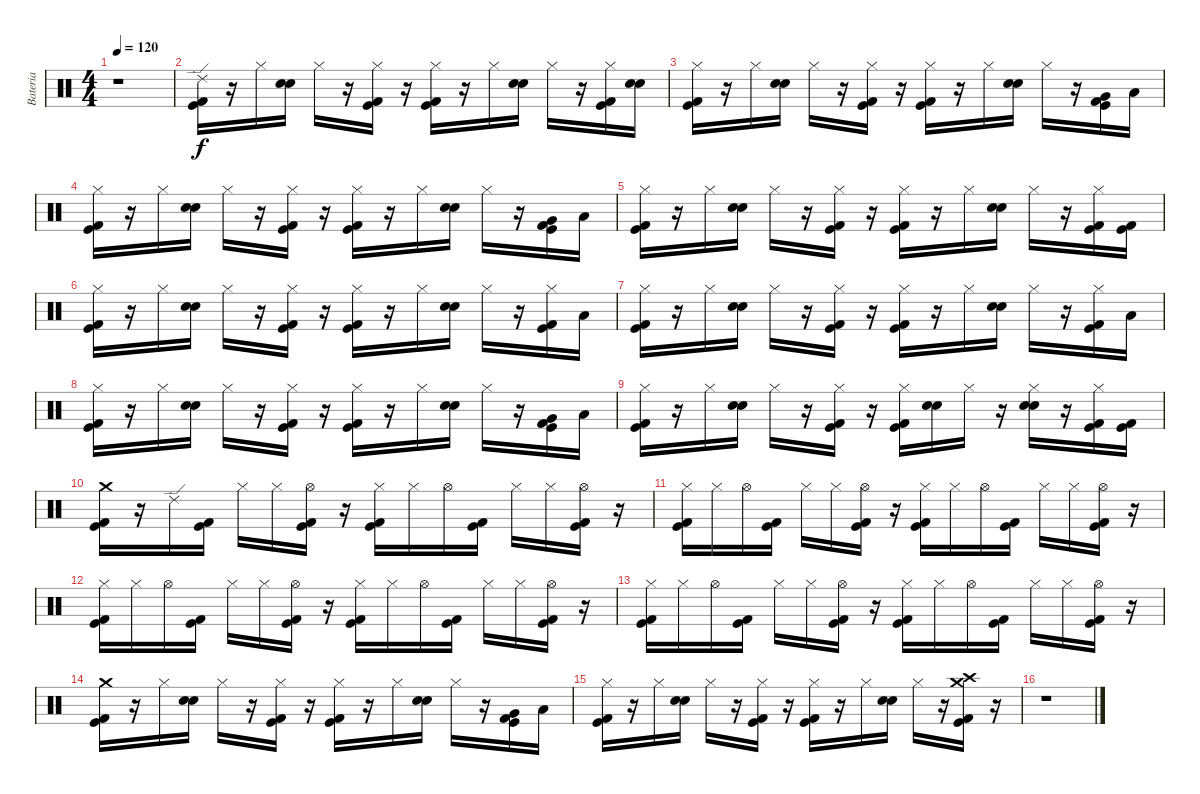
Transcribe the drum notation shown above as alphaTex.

\track ("Bateria" "Bateria") {instrument percussion}
\staff {score}
\articulation defaults
\ts (4 4)
\tempo 120
\clef neutral
\ks c
r.1{dy f} |
("Ride (edge) 2" "Kick (hit) 2" "Kick (hit)").16 r.16 "Hi-Hat (closed)".16 ("Electric Snare (hit)" "Snare (hit) 2").16 "Hi-Hat (closed)".16 r.16 ("Hi-Hat (closed)" "Kick (hit) 2" "Kick (hit)").16 r.16 ("Kick (hit) 2" "Kick (hit)" "Hi-Hat (closed)").16 r.16 "Hi-Hat (closed)".16 ("Electric Snare (hit)" "Snare (hit) 2").16 "Hi-Hat (closed)".16 r.16 ("Kick (hit)" "Kick (hit) 2" "Hi-Hat (closed)").16 ("Electric Snare (hit)" "Snare (hit) 2").16 |
("Hi-Hat (closed)" "Kick (hit) 2" "Kick (hit)").16 r.16 "Hi-Hat (closed)".16 ("Electric Snare (hit)" "Snare (hit) 2").16 "Hi-Hat (closed)".16 r.16 ("Hi-Hat (closed)" "Kick (hit) 2" "Kick (hit)").16 r.16 ("Kick (hit) 2" "Kick (hit)" "Hi-Hat (closed)").16 r.16 "Hi-Hat (closed)".16 ("Electric Snare (hit)" "Snare (hit) 2").16 "Hi-Hat (closed)".16 r.16 ("Very Low Tom (hit)" "Kick (hit)" "Kick (hit) 2").16 "Low Floor Tom (hit)".16 |
("Hi-Hat (closed)" "Kick (hit) 2" "Kick (hit)").16 r.16 "Hi-Hat (closed)".16 ("Electric Snare (hit)" "Snare (hit) 2").16 "Hi-Hat (closed)".16 r.16 ("Hi-Hat (closed)" "Kick (hit) 2" "Kick (hit)").16 r.16 ("Kick (hit) 2" "Kick (hit)" "Hi-Hat (closed)").16 r.16 "Hi-Hat (closed)".16 ("Electric Snare (hit)" "Snare (hit) 2").16 "Hi-Hat (closed)".16 r.16 ("Very Low Tom (hit)" "Kick (hit)" "Kick (hit) 2").16 "Low Floor Tom (hit)".16 |
("Hi-Hat (closed)" "Kick (hit) 2" "Kick (hit)").16 r.16 "Hi-Hat (closed)".16 ("Electric Snare (hit)" "Snare (hit) 2").16 "Hi-Hat (closed)".16 r.16 ("Hi-Hat (closed)" "Kick (hit) 2" "Kick (hit)").16 r.16 ("Kick (hit) 2" "Kick (hit)" "Hi-Hat (closed)").16 r.16 "Hi-Hat (closed)".16 ("Electric Snare (hit)" "Snare (hit) 2").16 "Hi-Hat (closed)".16 r.16 ("Kick (hit)" "Kick (hit) 2" "Hi-Hat (closed)").16 ("Kick (hit) 2" "Kick (hit)").16 |
("Hi-Hat (closed)" "Kick (hit) 2" "Kick (hit)").16 r.16 "Hi-Hat (closed)".16 ("Electric Snare (hit)" "Snare (hit) 2").16 "Hi-Hat (closed)".16 r.16 ("Hi-Hat (closed)" "Kick (hit) 2" "Kick (hit)").16 r.16 ("Kick (hit) 2" "Kick (hit)" "Hi-Hat (closed)").16 r.16 "Hi-Hat (closed)".16 ("Electric Snare (hit)" "Snare (hit) 2").16 "Hi-Hat (closed)".16 r.16 ("Kick (hit)" "Kick (hit) 2" "Hi-Hat (closed)").16 "Low Floor Tom (hit)".16 |
("Hi-Hat (closed)" "Kick (hit) 2" "Kick (hit)").16 r.16 "Hi-Hat (closed)".16 ("Electric Snare (hit)" "Snare (hit) 2").16 "Hi-Hat (closed)".16 r.16 ("Hi-Hat (closed)" "Kick (hit) 2" "Kick (hit)").16 r.16 ("Kick (hit) 2" "Kick (hit)" "Hi-Hat (closed)").16 r.16 "Hi-Hat (closed)".16 ("Electric Snare (hit)" "Snare (hit) 2").16 "Hi-Hat (closed)".16 r.16 ("Kick (hit)" "Kick (hit) 2" "Hi-Hat (closed)").16 "Low Floor Tom (hit)".16 |
("Hi-Hat (closed)" "Kick (hit) 2" "Kick (hit)").16 r.16 "Hi-Hat (closed)".16 ("Electric Snare (hit)" "Snare (hit) 2").16 "Hi-Hat (closed)".16 r.16 ("Hi-Hat (closed)" "Kick (hit) 2" "Kick (hit)").16 r.16 ("Kick (hit) 2" "Kick (hit)" "Hi-Hat (closed)").16 r.16 "Hi-Hat (closed)".16 ("Electric Snare (hit)" "Snare (hit) 2").16 "Hi-Hat (closed)".16 r.16 ("Very Low Tom (hit)" "Kick (hit)" "Kick (hit) 2").16 "Low Floor Tom (hit)".16 |
("Hi-Hat (closed)" "Kick (hit) 2" "Kick (hit)").16 r.16 "Hi-Hat (closed)".16 ("Electric Snare (hit)" "Snare (hit) 2").16 "Hi-Hat (closed)".16 r.16 ("Hi-Hat (closed)" "Kick (hit) 2" "Kick (hit)").16 r.16 ("Kick (hit) 2" "Kick (hit)" "Hi-Hat (closed)").16 ("Electric Snare (hit)" "Snare (hit) 2").16 "Hi-Hat (closed)".16 r.16 ("Electric Snare (hit)" "Snare (hit) 2" "Hi-Hat (closed)").16 r.16 ("Kick (hit)" "Kick (hit) 2" "Hi-Hat (closed)").16 ("Kick (hit) 2" "Kick (hit)").16 |
("Crash medium (hit)" "Kick (hit) 2" "Kick (hit)").16 r.16 "Ride (edge) 2".16 ("Kick (hit) 2" "Kick (hit)").16 "Hi-Hat (closed)".16 "Hi-Hat (closed)".16 ("Kick (hit) 2" "Kick (hit)" "Hi-Hat (open)").16 r.16 ("Kick (hit) 2" "Kick (hit)" "Hi-Hat (closed)").16 "Hi-Hat (closed)".16 "Hi-Hat (open)".16 ("Kick (hit) 2" "Kick (hit)").16 "Hi-Hat (closed)".16 "Hi-Hat (closed)".16 ("Kick (hit) 2" "Kick (hit)" "Hi-Hat (open)").16 r.16 |
("Kick (hit) 2" "Kick (hit)" "Hi-Hat (closed)").16 "Hi-Hat (closed)".16 "Hi-Hat (open)".16 ("Kick (hit) 2" "Kick (hit)").16 "Hi-Hat (closed)".16 "Hi-Hat (closed)".16 ("Kick (hit) 2" "Kick (hit)" "Hi-Hat (open)").16 r.16 ("Kick (hit) 2" "Kick (hit)" "Hi-Hat (closed)").16 "Hi-Hat (closed)".16 "Hi-Hat (open)".16 ("Kick (hit) 2" "Kick (hit)").16 "Hi-Hat (closed)".16 "Hi-Hat (closed)".16 ("Kick (hit) 2" "Kick (hit)" "Hi-Hat (open)").16 r.16 |
("Kick (hit) 2" "Kick (hit)" "Hi-Hat (closed)").16 "Hi-Hat (closed)".16 "Hi-Hat (open)".16 ("Kick (hit) 2" "Kick (hit)").16 "Hi-Hat (closed)".16 "Hi-Hat (closed)".16 ("Kick (hit) 2" "Kick (hit)" "Hi-Hat (open)").16 r.16 ("Kick (hit) 2" "Kick (hit)" "Hi-Hat (closed)").16 "Hi-Hat (closed)".16 "Hi-Hat (open)".16 ("Kick (hit) 2" "Kick (hit)").16 "Hi-Hat (closed)".16 "Hi-Hat (closed)".16 ("Kick (hit) 2" "Kick (hit)" "Hi-Hat (open)").16 r.16 |
("Kick (hit) 2" "Kick (hit)" "Hi-Hat (closed)").16 "Hi-Hat (closed)".16 "Hi-Hat (open)".16 ("Kick (hit) 2" "Kick (hit)").16 "Hi-Hat (closed)".16 "Hi-Hat (closed)".16 ("Kick (hit) 2" "Kick (hit)" "Hi-Hat (open)").16 r.16 ("Kick (hit) 2" "Kick (hit)" "Hi-Hat (closed)").16 "Hi-Hat (closed)".16 "Hi-Hat (open)".16 ("Kick (hit) 2" "Kick (hit)").16 "Hi-Hat (closed)".16 "Hi-Hat (closed)".16 ("Kick (hit) 2" "Kick (hit)" "Hi-Hat (open)").16 r.16 |
("Crash medium (hit)" "Kick (hit) 2" "Kick (hit)").16 r.16 "Hi-Hat (closed)".16 ("Electric Snare (hit)" "Snare (hit) 2").16 "Hi-Hat (closed)".16 r.16 ("Kick (hit) 2" "Kick (hit)" "Hi-Hat (closed)").16 r.16 ("Kick (hit) 2" "Kick (hit)" "Hi-Hat (closed)").16 r.16 "Hi-Hat (closed)".16 ("Electric Snare (hit)" "Snare (hit) 2").16 "Hi-Hat (closed)".16 r.16 ("Very Low Tom (hit)" "Kick (hit) 2" "Kick (hit)").16 "Low Floor Tom (hit)".16 |
("Kick (hit) 2" "Kick (hit)" "Hi-Hat (closed)").16 r.16 "Hi-Hat (closed)".16 ("Electric Snare (hit)" "Snare (hit) 2").16 "Hi-Hat (closed)".16 r.16 ("Kick (hit) 2" "Kick (hit)" "Hi-Hat (closed)").16 r.16 ("Kick (hit) 2" "Kick (hit)" "Hi-Hat (closed)").16 r.16 "Hi-Hat (closed)".16 ("Electric Snare (hit)" "Snare (hit) 2").16 "Hi-Hat (closed)".16 r.16 ("Crash high (hit)" "Crash medium (hit)" "Kick (hit) 2" "Kick (hit)").16 r.16 |
r.1
